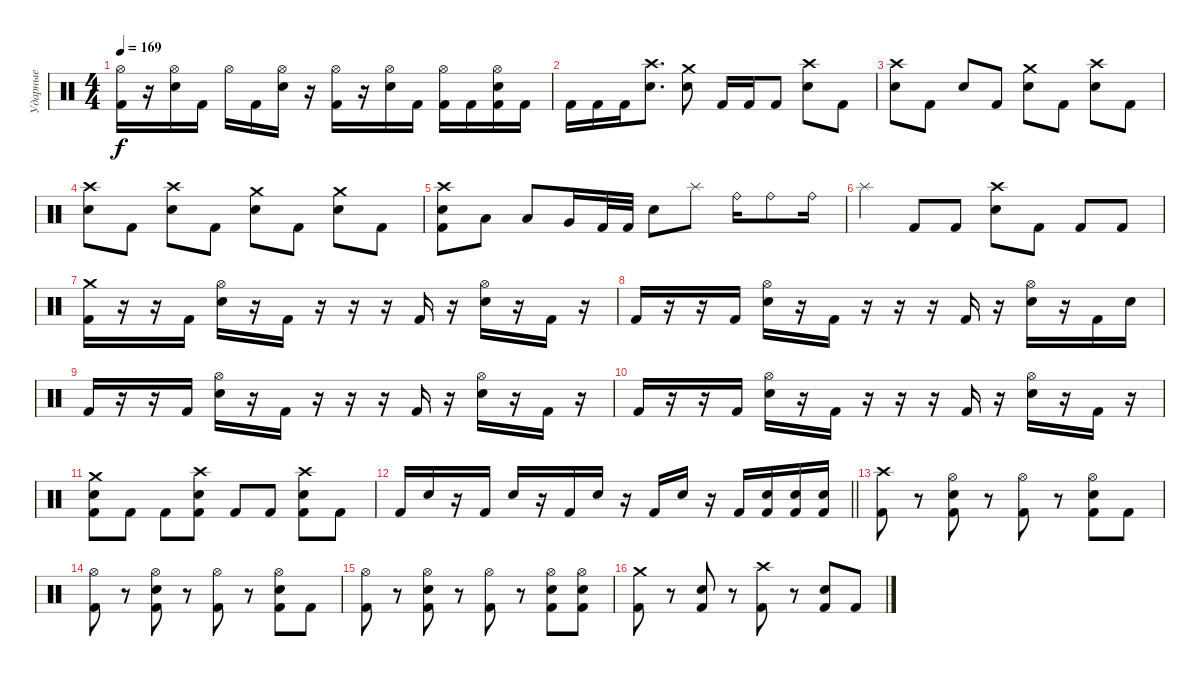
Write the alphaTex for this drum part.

\track ("Ударные" "Ударные") {instrument percussion}
\staff {score}
\articulation defaults
\ts (4 4)
\tempo 169
\clef neutral
\ks c
("Hi-Hat (open)" "Kick (hit) 2").16{dy f} r.16 ("Hi-Hat (open)" "Snare (hit) 2").16 "Kick (hit) 2".16 "Hi-Hat (open)".16 "Kick (hit) 2".16 ("Hi-Hat (open)" "Snare (hit) 2").16 r.16 ("Hi-Hat (open)" "Kick (hit) 2").16 r.16 ("Hi-Hat (open)" "Snare (hit) 2").16 "Kick (hit) 2".16 ("Hi-Hat (open)" "Kick (hit) 2").16 "Kick (hit) 2".16 ("Hi-Hat (open)" "Kick (hit) 2" "Snare (hit) 2").16 "Kick (hit) 2".16 |
"Kick (hit) 2".16 "Kick (hit) 2".16 "Kick (hit) 2".16 ("Crash high (hit)" "Snare (hit) 2").8{d} ("Crash medium (hit)" "Snare (hit) 2").8 "Kick (hit) 2".16 "Kick (hit) 2".16 "Kick (hit) 2".8 ("Crash high (hit)" "Snare (hit) 2").8 "Kick (hit) 2".8 |
("Crash high (hit)" "Snare (hit) 2").8 "Kick (hit) 2".8 "Snare (hit) 2".8 "Kick (hit) 2".8 ("Crash medium (hit)" "Snare (hit) 2").8 "Kick (hit) 2".8 ("Crash high (hit)" "Snare (hit) 2").8 "Kick (hit) 2".8 |
("Crash high (hit)" "Snare (hit) 2").8 "Kick (hit) 2".8 ("Crash high (hit)" "Snare (hit) 2").8 "Kick (hit) 2".8 ("Crash medium (hit)" "Snare (hit) 2").8 "Kick (hit) 2".8 ("Crash medium (hit)" "Snare (hit) 2").8 "Kick (hit) 2".8 |
("Crash high (hit)" "Snare (hit) 2" "Kick (hit) 2").8 "Low Tom (hit)".8 "Low Floor Tom (hit)".8 "Very Low Tom (hit)".16 "Kick (hit) 2".32 "Kick (hit) 2".32 "Snare (hit) 2".8 "Splash (hit)".8 "Ride (bell)".16 "Ride (bell)".8 "Ride (bell)".16 |
"Splash (hit)".4 "Kick (hit) 2".8 "Kick (hit) 2".8 ("Crash high (hit)" "Snare (hit) 2").8 "Kick (hit) 2".8 "Kick (hit) 2".8 "Kick (hit) 2".8 |
("Kick (hit) 2" "Crash medium (hit)").16 r.16 r.16 "Kick (hit) 2".16 ("Snare (hit) 2" "Hi-Hat (open)").16 r.16 "Kick (hit) 2".16 r.16 r.16 r.16 "Kick (hit) 2".16 r.16 ("Snare (hit) 2" "Hi-Hat (open)").16 r.16 "Kick (hit) 2".16 r.16 |
"Kick (hit) 2".16 r.16 r.16 "Kick (hit) 2".16 ("Snare (hit) 2" "Hi-Hat (open)").16 r.16 "Kick (hit) 2".16 r.16 r.16 r.16 "Kick (hit) 2".16 r.16 ("Snare (hit) 2" "Hi-Hat (open)").16 r.16 "Kick (hit) 2".16 "Snare (hit) 2".16 |
"Kick (hit) 2".16 r.16 r.16 "Kick (hit) 2".16 ("Snare (hit) 2" "Hi-Hat (open)").16 r.16 "Kick (hit) 2".16 r.16 r.16 r.16 "Kick (hit) 2".16 r.16 ("Snare (hit) 2" "Hi-Hat (open)").16 r.16 "Kick (hit) 2".16 r.16 |
"Kick (hit) 2".16 r.16 r.16 "Kick (hit) 2".16 ("Snare (hit) 2" "Hi-Hat (open)").16 r.16 "Kick (hit) 2".16 r.16 r.16 r.16 "Kick (hit) 2".16 r.16 ("Snare (hit) 2" "Hi-Hat (open)").16 r.16 "Kick (hit) 2".16 r.16 |
("Crash medium (hit)" "Snare (hit) 2" "Kick (hit) 2").8 "Kick (hit) 2".8 "Kick (hit) 2".8 ("Crash high (hit)" "Snare (hit) 2" "Kick (hit) 2").8 "Kick (hit) 2".8 "Kick (hit) 2".8 ("Crash high (hit)" "Snare (hit) 2" "Kick (hit) 2").8 "Kick (hit) 2".8 |
\barLineRight lightlight "Kick (hit) 2".16 "Snare (hit) 2".16
r.16 "Kick (hit) 2".16 "Snare (hit) 2".16 r.16 "Kick (hit) 2".16 "Snare (hit) 2".16 r.16 "Kick (hit) 2".16 "Snare (hit) 2".16 r.16 "Kick (hit) 2".16 ("Snare (hit) 2" "Kick (hit) 2").16 ("Snare (hit) 2" "Kick (hit) 2").16 ("Snare (hit) 2" "Kick (hit) 2").16 |
("Kick (hit) 2" "Crash high (hit)").8 r.8 ("Snare (hit) 2" "Kick (hit) 2" "Hi-Hat (open)").8 r.8 ("Kick (hit) 2" "Hi-Hat (open)").8 r.8 ("Snare (hit) 2" "Kick (hit) 2" "Hi-Hat (open)").8 "Kick (hit) 2".8 |
("Kick (hit) 2" "Hi-Hat (open)").8 r.8 ("Snare (hit) 2" "Kick (hit) 2" "Hi-Hat (open)").8 r.8 ("Kick (hit) 2" "Hi-Hat (open)").8 r.8 ("Snare (hit) 2" "Kick (hit) 2" "Hi-Hat (open)").8 "Kick (hit) 2".8 |
("Kick (hit) 2" "Hi-Hat (open)").8 r.8 ("Snare (hit) 2" "Kick (hit) 2" "Hi-Hat (open)").8 r.8 ("Kick (hit) 2" "Hi-Hat (open)").8 r.8 ("Snare (hit) 2" "Kick (hit) 2" "Hi-Hat (open)").8 ("Snare (hit) 2" "Kick (hit) 2" "Hi-Hat (open)").8 |
("Kick (hit) 2" "Crash medium (hit)").8 r.8 ("Snare (hit) 2" "Kick (hit) 2").8 r.8 ("Kick (hit) 2" "Crash high (hit)").8 r.8 ("Snare (hit) 2" "Kick (hit) 2").8 "Kick (hit) 2".8
